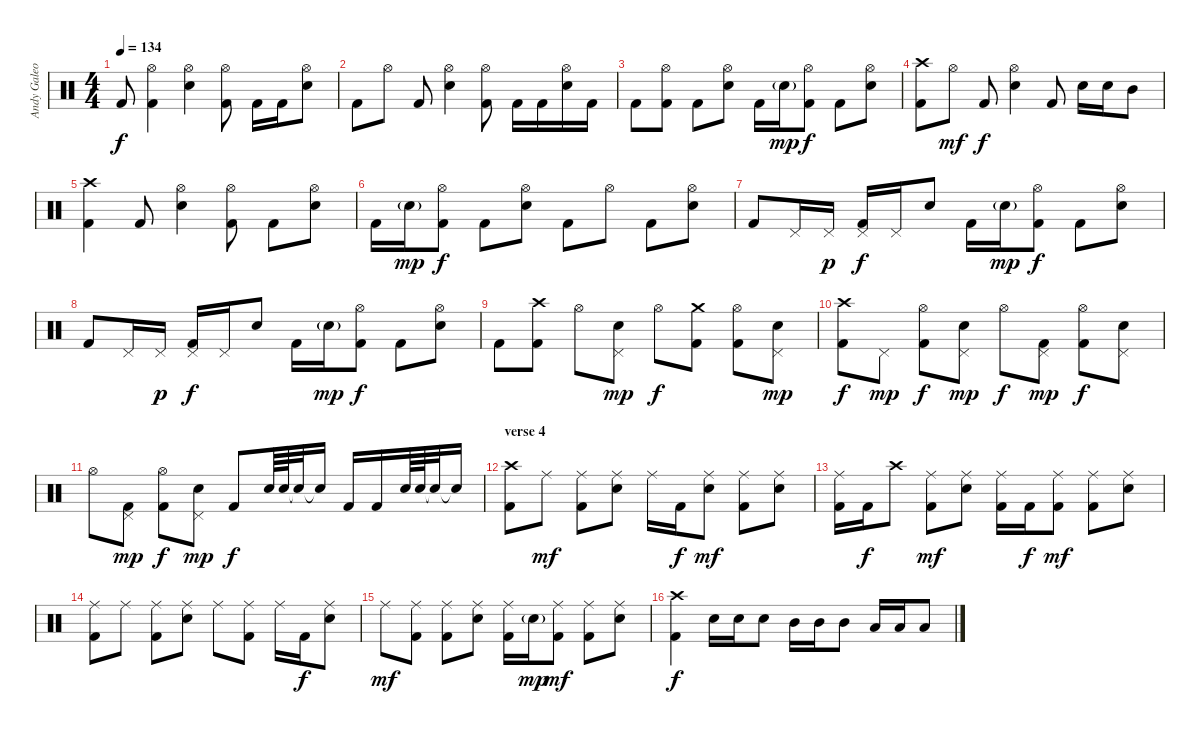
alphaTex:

\track ("Andy Galeon" "Andy Galeo") {instrument percussion}
\staff {score}
\articulation defaults
\ts (4 4)
\tempo 134
\clef neutral
\ks c "Kick (hit) 2".8{dy f}
("Kick (hit) 2" "Hi-Hat (open)").4 ("Hi-Hat (open)" "Snare (hit) 2").4 ("Kick (hit) 2" "Hi-Hat (open)").8 "Kick (hit) 2".16 "Kick (hit) 2".16 ("Hi-Hat (open)" "Snare (hit) 2").8 |
"Kick (hit) 2".8 "Hi-Hat (open)".8 "Kick (hit) 2".8 ("Hi-Hat (open)" "Snare (hit) 2").4 ("Kick (hit) 2" "Hi-Hat (open)").8 "Kick (hit) 2".16 "Kick (hit) 2".16 ("Hi-Hat (open)" "Snare (hit) 2").16 "Kick (hit) 2".16 |
"Kick (hit) 2".8 ("Kick (hit) 2" "Hi-Hat (open)").8 "Kick (hit) 2".8 ("Hi-Hat (open)" "Snare (hit) 2").8 "Kick (hit) 2".16 "Snare (hit) 2"{g}.16{dy mp} ("Kick (hit) 2" "Hi-Hat (open)").8{dy f} "Kick (hit) 2".8 ("Hi-Hat (open)" "Snare (hit) 2").8 |
("Kick (hit) 2" "Crash high (hit)").8 "Hi-Hat (open)".8{dy mf} "Kick (hit) 2".8{dy f} ("Hi-Hat (open)" "Snare (hit) 2").4 "Kick (hit) 2".8 "Snare (hit) 2".16 "Snare (hit) 2".16 "Mid Tom (hit)".8 |
("Kick (hit) 2" "Crash high (hit)").4 "Kick (hit) 2".8 ("Hi-Hat (open)" "Snare (hit) 2").4 ("Kick (hit) 2" "Hi-Hat (open)").8 "Kick (hit) 2".8 ("Hi-Hat (open)" "Snare (hit) 2").8 |
"Kick (hit) 2".16 "Snare (hit) 2"{g}.16{dy mp} ("Kick (hit) 2" "Hi-Hat (open)").8{dy f} "Kick (hit) 2".8 ("Hi-Hat (open)" "Snare (hit) 2").8 "Kick (hit) 2".8 "Hi-Hat (open)".8 "Kick (hit) 2".8 ("Hi-Hat (open)" "Snare (hit) 2").8 |
"Kick (hit) 2".8 "Pedal Hi-Hat (hit)".16 "Pedal Hi-Hat (hit)".16{dy p} ("Kick (hit) 2" "Pedal Hi-Hat (hit)").16{dy f} "Pedal Hi-Hat (hit)".16 "Snare (hit) 2".8 "Kick (hit) 2".16 "Snare (hit) 2"{g}.16{dy mp} ("Kick (hit) 2" "Hi-Hat (open)").8{dy f} "Kick (hit) 2".8 ("Hi-Hat (open)" "Snare (hit) 2").8 |
"Kick (hit) 2".8 "Pedal Hi-Hat (hit)".16 "Pedal Hi-Hat (hit)".16{dy p} ("Kick (hit) 2" "Pedal Hi-Hat (hit)").16{dy f} "Pedal Hi-Hat (hit)".16 "Snare (hit) 2".8 "Kick (hit) 2".16 "Snare (hit) 2"{g}.16{dy mp} ("Kick (hit) 2" "Hi-Hat (open)").8{dy f} "Kick (hit) 2".8 ("Hi-Hat (open)" "Snare (hit) 2").8 |
"Kick (hit) 2".8 ("Kick (hit) 2" "Crash high (hit)").8 "Hi-Hat (open)".8 ("Pedal Hi-Hat (hit)" "Snare (hit) 2").8{dy mp} "Hi-Hat (open)".8{dy f} ("Kick (hit) 2" "Crash medium (hit)").8 ("Kick (hit) 2" "Hi-Hat (open)").8 ("Pedal Hi-Hat (hit)" "Snare (hit) 2").8{dy mp} |
("Kick (hit) 2" "Crash high (hit)").8{dy f} "Pedal Hi-Hat (hit)".8{dy mp} ("Kick (hit) 2" "Hi-Hat (open)").8{dy f} ("Pedal Hi-Hat (hit)" "Snare (hit) 2").8{dy mp} "Hi-Hat (open)".8{dy f} ("Kick (hit) 2" "Pedal Hi-Hat (hit)").8{dy mp} ("Kick (hit) 2" "Hi-Hat (open)").8{dy f} ("Pedal Hi-Hat (hit)" "Snare (hit) 2").8 |
"Hi-Hat (open)".8 ("Kick (hit) 2" "Pedal Hi-Hat (hit)").8{dy mp} ("Kick (hit) 2" "Hi-Hat (open)").8{dy f} ("Pedal Hi-Hat (hit)" "Snare (hit) 2").8{dy mp} "Kick (hit) 2".8{dy f} "Snare (hit) 2".64 "Snare (hit) 2".64 "Snare (hit) 2"{t}.32 "Snare (hit)"{t}.16 "Kick (hit) 2".16 "Kick (hit) 2".16 "Snare (hit) 2".64 "Snare (hit) 2".64 "Snare (hit)"{t}.32 "Snare (hit)"{t}.16 |
\section ("" "verse 4")
("Kick (hit) 2" "Crash high (hit)").8 "Ride (middle)".8{dy mf} ("Kick (hit) 2" "Ride (middle)").8 ("Ride (middle)" "Snare (hit) 2").8 "Ride (middle)".16 "Kick (hit) 2".16{dy f} ("Ride (middle)" "Snare (hit) 2").8{dy mf} ("Kick (hit) 2" "Ride (middle)").8 ("Ride (middle)" "Snare (hit) 2").8 |
("Kick (hit) 2" "Ride (middle)").16 "Kick (hit) 2".16{dy f} "Crash high (hit)".8 ("Kick (hit) 2" "Ride (middle)").8{dy mf} ("Ride (middle)" "Snare (hit) 2").8 ("Kick (hit) 2" "Ride (middle)").16 "Kick (hit) 2".16{dy f} ("Kick (hit) 2" "Ride (middle)").8{dy mf} ("Kick (hit) 2" "Ride (middle)").8 ("Ride (middle)" "Snare (hit) 2").8 |
("Kick (hit) 2" "Ride (middle)").8 "Ride (middle)".8 ("Kick (hit) 2" "Ride (middle)").8 ("Ride (middle)" "Snare (hit) 2").8 "Ride (middle)".8 ("Kick (hit) 2" "Ride (middle)").8 "Ride (middle)".16 "Kick (hit) 2".16{dy f} ("Ride (middle)" "Snare (hit) 2").8 |
"Ride (middle)".8{dy mf} ("Kick (hit) 2" "Ride (middle)").8 ("Kick (hit) 2" "Ride (middle)").8 ("Ride (middle)" "Snare (hit) 2").8 ("Kick (hit) 2" "Ride (middle)").16 "Snare (hit) 2"{g}.16{dy mp} ("Kick (hit) 2" "Ride (middle)").8{dy mf} ("Kick (hit) 2" "Ride (middle)").8 ("Ride (middle)" "Snare (hit) 2").8 |
("Kick (hit) 2" "Crash high (hit)").4{dy f} "Snare (hit) 2".16 "Snare (hit) 2".16 "Snare (hit) 2".8 "Mid Tom (hit)".16 "Mid Tom (hit)".16 "Mid Tom (hit)".8 "Low Tom (hit)".16 "Low Tom (hit)".16 "Low Tom (hit)".8
